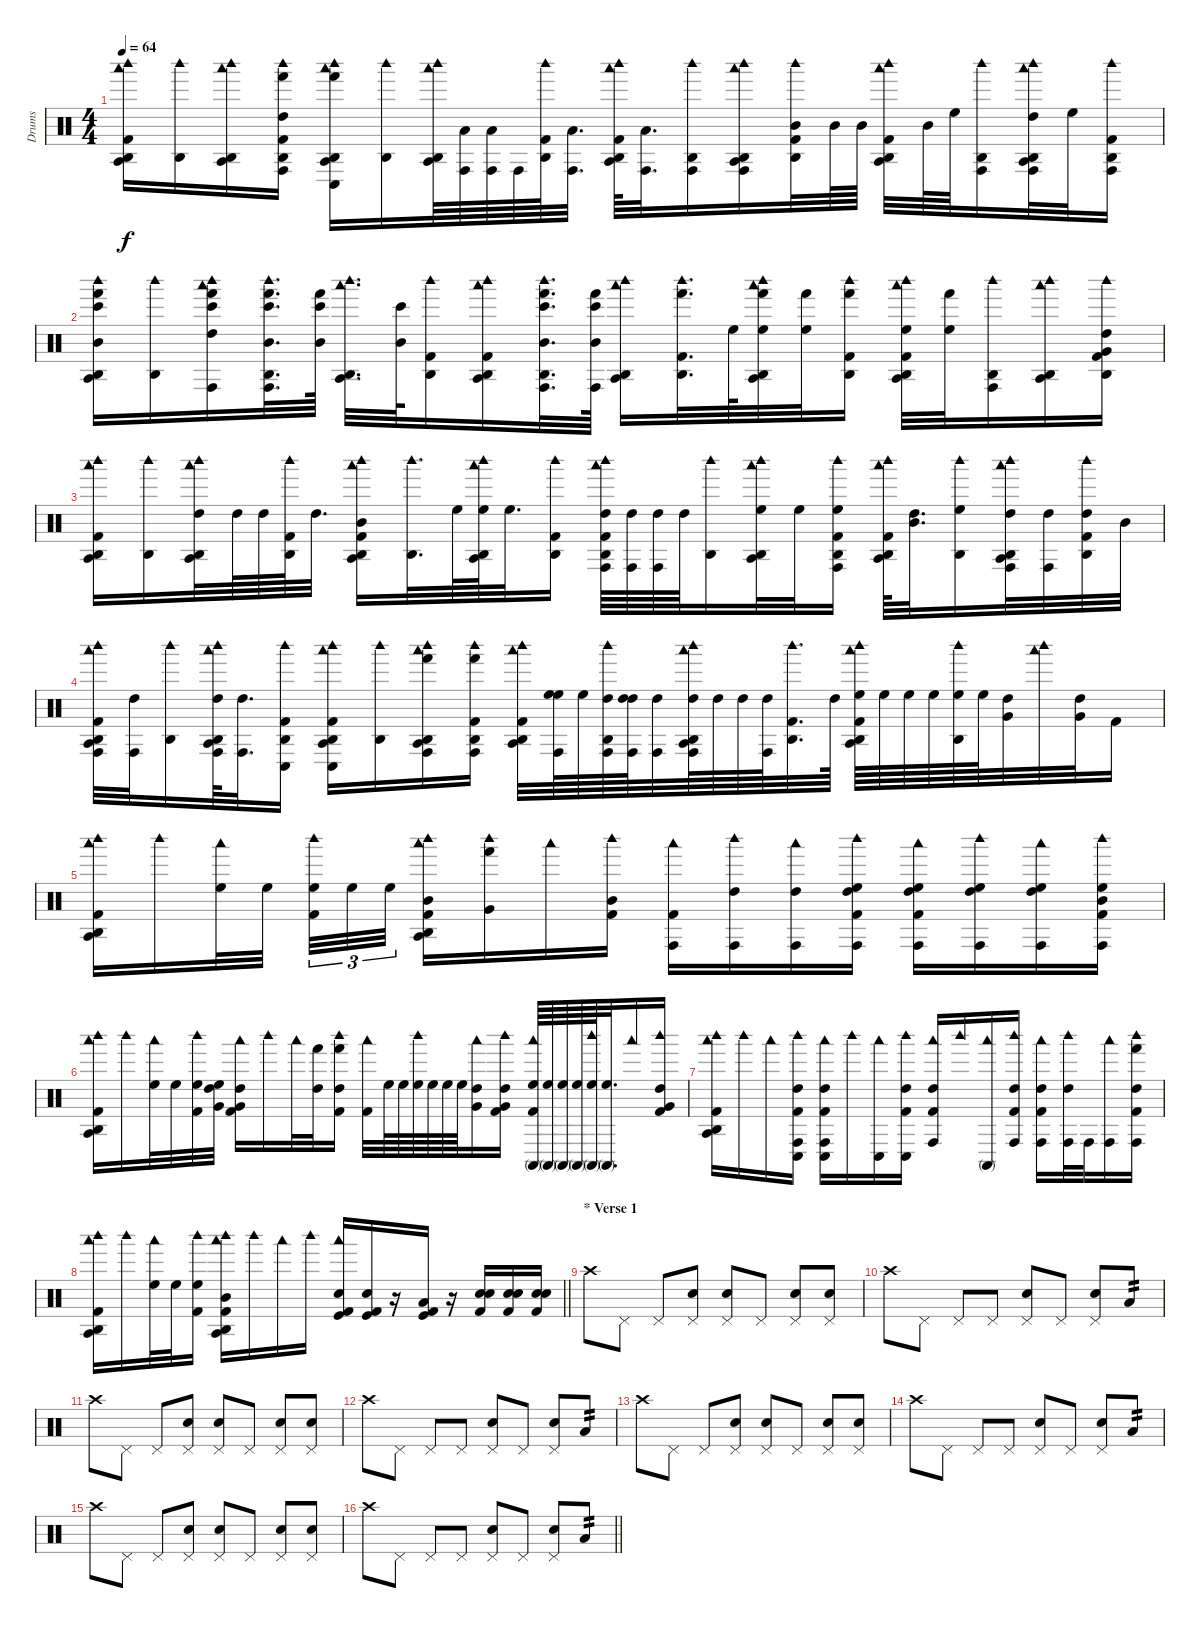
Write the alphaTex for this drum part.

\track ("Drums" "Drums") {instrument percussion}
\staff {score}
\articulation defaults
\ts (4 4)
\tempo 64
\clef neutral
\ks c
("Agogo tow (hit)" "Kick (hit) 2" "Agogo high (hit)" "Woodblock low (hit)" "Woodblock high (hit)").16{dy f} ("Woodblock high (hit)" "Agogo high (hit)").16 ("Woodblock high (hit)" "Woodblock low (hit)" "Agogo high (hit)" "Agogo tow (hit)").16 ("High Tom (hit)" "Conga high (hit)" "Hand (hit)" "Woodblock high (hit)" "Agogo high (hit)" "Kick (hit) 2").16 ("Conga low (hit)" "Hand (hit)" "Woodblock high (hit)" "Woodblock low (hit)" "Agogo high (hit)" "Agogo tow (hit)").16 ("Agogo high (hit)" "Woodblock high (hit)").16 ("Woodblock low (hit)" "Agogo high (hit)" "Agogo tow (hit)" "Woodblock high (hit)").64 ("Low Tom (hit)" "Conga high (hit)").64 ("Low Tom (hit)" "Conga high (hit)").64 "Conga high (hit)".64 ("Woodblock high (hit)" "Agogo high (hit)" "Kick (hit) 2").64 ("Low Tom (hit)" "Conga high (hit)").32{d} ("Agogo tow (hit)" "Agogo high (hit)" "Woodblock low (hit)" "Kick (hit) 2" "Woodblock high (hit)").64 ("Low Tom (hit)" "Conga high (hit)").32{d} ("Woodblock high (hit)" "Agogo high (hit)" "Conga high (hit)").16 ("Conga high (hit)" "Agogo tow (hit)" "Agogo high (hit)" "Woodblock low (hit)" "Woodblock high (hit)").16 ("Mid Tom (hit)" "Woodblock high (hit)" "Agogo high (hit)" "Kick (hit) 2").32 "Mid Tom (hit)".64 "Mid Tom (hit)".64 ("Agogo high (hit)" "Agogo tow (hit)" "Woodblock low (hit)" "Woodblock high (hit)" "Kick (hit) 2").32 "Mid Tom (hit)".64 "High Floor Tom (hit)".64 ("Conga high (hit)" "Agogo high (hit)" "Woodblock high (hit)").16 ("Woodblock low (hit)" "Agogo tow (hit)" "Agogo high (hit)" "Woodblock high (hit)" "Conga high (hit)" "High Tom (hit)").32 "High Floor Tom (hit)".32 ("Conga high (hit)" "Agogo high (hit)" "Woodblock high (hit)" "Kick (hit) 2").16 |
("Mid Tom (hit)" "Hand (hit)" "Bongo High (hit)" "Woodblock high (hit)" "Agogo high (hit)" "Agogo tow (hit)").16 ("Agogo high (hit)" "Woodblock high (hit)").16 ("Conga high (hit)" "High Tom (hit)" "Bongo High (hit)" "Hand (hit)" "Woodblock low (hit)" "Woodblock high (hit)").16 ("Bongo High (hit)" "Conga high (hit)" "Hand (hit)" "Mid Tom (hit)" "Agogo high (hit)" "Woodblock high (hit)").32{d} ("Hand (hit)" "Bongo High (hit)" "Mid Tom (hit)").64 ("Woodblock high (hit)" "Woodblock low (hit)" "Agogo tow (hit)" "Agogo high (hit)").32{d} ("Bongo High (hit)" "Mid Tom (hit)").64 ("Woodblock high (hit)" "Agogo high (hit)" "Kick (hit) 2").16 ("Woodblock high (hit)" "Agogo high (hit)" "Woodblock low (hit)" "Kick (hit) 2" "Agogo tow (hit)").16 ("Conga high (hit)" "Bongo High (hit)" "Woodblock high (hit)" "Hand (hit)" "Agogo high (hit)" "Mid Tom (hit)").32{d} ("Bongo High (hit)" "Hand (hit)" "Mid Tom (hit)" "Conga high (hit)").64 ("Agogo high (hit)" "Woodblock high (hit)" "Agogo tow (hit)" "Woodblock low (hit)").16 ("Woodblock high (hit)" "Agogo high (hit)" "Kick (hit) 2" "Hand (hit)").32{d} "High Floor Tom (hit)".64 ("Agogo high (hit)" "Woodblock high (hit)" "Agogo tow (hit)" "Woodblock low (hit)" "High Floor Tom (hit)" "Hand (hit)").32 ("Hand (hit)" "High Floor Tom (hit)").32 ("Hand (hit)" "Agogo high (hit)" "Woodblock high (hit)" "Kick (hit) 2").16 ("Woodblock high (hit)" "Agogo high (hit)" "Agogo tow (hit)" "Kick (hit) 2" "Woodblock low (hit)" "High Floor Tom (hit)").32 ("Hand (hit)" "High Floor Tom (hit)").32 ("Conga high (hit)" "Woodblock high (hit)" "Agogo high (hit)").16 ("Agogo high (hit)" "Woodblock high (hit)" "Agogo tow (hit)" "Woodblock low (hit)").16 ("Very Low Tom (hit)" "High Tom (hit)" "Woodblock high (hit)" "Agogo high (hit)" "Kick (hit) 2").16 |
("Agogo high (hit)" "Woodblock low (hit)" "Agogo tow (hit)" "Woodblock high (hit)" "Kick (hit) 2").16 ("Woodblock high (hit)" "Agogo high (hit)").16 ("Woodblock low (hit)" "Agogo tow (hit)" "Woodblock high (hit)" "Agogo high (hit)" "High Tom (hit)").32 "High Tom (hit)".64 "High Tom (hit)".64 ("Agogo high (hit)" "Woodblock high (hit)" "Kick (hit) 2").64 "High Tom (hit)".32{d} ("Mid Tom (hit)" "Woodblock high (hit)" "Agogo high (hit)" "Woodblock low (hit)" "Kick (hit) 2" "Agogo tow (hit)").16 ("Woodblock high (hit)" "Agogo high (hit)").32{d} "High Floor Tom (hit)".64 ("Woodblock low (hit)" "Woodblock high (hit)" "Agogo tow (hit)" "Agogo high (hit)" "High Floor Tom (hit)").64 "High Floor Tom (hit)".32{d} ("Woodblock high (hit)" "Agogo high (hit)" "Kick (hit) 2").16 ("Woodblock high (hit)" "High Tom (hit)" "Agogo high (hit)" "Woodblock low (hit)" "Conga high (hit)" "Kick (hit) 2").64 ("High Tom (hit)" "Conga high (hit)").64 ("High Tom (hit)" "Conga high (hit)").64 "High Tom (hit)".64 ("Agogo high (hit)" "Woodblock high (hit)").16 ("High Floor Tom (hit)" "Agogo high (hit)" "Woodblock low (hit)" "Woodblock high (hit)" "Agogo tow (hit)").32 "High Floor Tom (hit)".32 ("Conga high (hit)" "High Floor Tom (hit)" "Agogo high (hit)" "Woodblock high (hit)" "Kick (hit) 2").16 ("Agogo tow (hit)" "Woodblock high (hit)" "Woodblock low (hit)" "Kick (hit) 2" "Agogo high (hit)").64 ("Mid Tom (hit)" "High Tom (hit)").32{d} ("Woodblock high (hit)" "High Floor Tom (hit)" "Agogo high (hit)").16 ("Agogo tow (hit)" "Agogo high (hit)" "Woodblock high (hit)" "Woodblock low (hit)" "High Tom (hit)" "Conga high (hit)").32 ("High Tom (hit)" "Conga high (hit)").32 ("Woodblock high (hit)" "High Tom (hit)" "Agogo high (hit)" "Kick (hit) 2").32 "Mid Tom (hit)".32 |
("Agogo high (hit)" "Woodblock high (hit)" "Agogo tow (hit)" "Woodblock low (hit)" "Kick (hit) 2" "Conga high (hit)").32 ("High Tom (hit)" "Conga high (hit)").32 ("Woodblock high (hit)" "Agogo high (hit)").16 ("Conga high (hit)" "High Tom (hit)" "Agogo high (hit)" "Agogo tow (hit)" "Woodblock high (hit)" "Woodblock low (hit)").64 ("High Tom (hit)" "Conga high (hit)").32{d} ("Woodblock high (hit)" "Agogo high (hit)" "Kick (hit) 2" "Conga low (hit)").16 ("Agogo high (hit)" "Woodblock high (hit)" "Agogo tow (hit)" "Kick (hit) 2" "Woodblock low (hit)" "Conga low (hit)").16 ("Woodblock high (hit)" "Agogo high (hit)").16 ("Woodblock low (hit)" "Hand (hit)" "Agogo high (hit)" "Conga high (hit)" "Agogo tow (hit)" "Woodblock high (hit)").16 ("Conga high (hit)" "Woodblock high (hit)" "Agogo high (hit)" "Hand (hit)" "Kick (hit) 2").16 ("Woodblock high (hit)" "Agogo tow (hit)" "Woodblock low (hit)" "Agogo high (hit)" "Kick (hit) 2").32 ("Conga high (hit)" "High Floor Tom (hit)" "High Floor Tom (hit)").64 "High Floor Tom (hit)".64 ("Woodblock high (hit)" "High Tom (hit)" "Agogo high (hit)" "Conga high (hit)").64 ("High Tom (hit)" "Conga high (hit)" "High Tom (hit)").64 ("Conga high (hit)" "High Tom (hit)").32 ("Agogo tow (hit)" "High Tom (hit)" "Agogo high (hit)" "Woodblock high (hit)" "Conga high (hit)" "Woodblock low (hit)").64 "High Tom (hit)".64 "High Tom (hit)".64 ("High Tom (hit)" "Conga high (hit)").64 ("Woodblock high (hit)" "Agogo high (hit)" "Kick (hit) 2").32{d} "High Tom (hit)".64 ("Woodblock low (hit)" "Woodblock high (hit)" "Agogo high (hit)" "Agogo tow (hit)" "High Floor Tom (hit)" "Kick (hit) 2").64 "High Floor Tom (hit)".64 "High Floor Tom (hit)".64 "High Floor Tom (hit)".64 ("Agogo high (hit)" "Woodblock high (hit)" "High Floor Tom (hit)").64 "High Floor Tom (hit)".64 ("Very Low Tom (hit)" "High Tom (hit)").32 ("Woodblock high (hit)" "Woodblock low (hit)").32 ("Very Low Tom (hit)" "High Tom (hit)").32 "Kick (hit) 2".16 |
("Agogo high (hit)" "Woodblock low (hit)" "Agogo tow (hit)" "Woodblock high (hit)" "Kick (hit) 2").16 "Woodblock high (hit)".16 ("High Floor Tom (hit)" "Woodblock low (hit)").32 "High Floor Tom (hit)".32{beam splitsecondary} ("High Floor Tom (hit)" "Kick (hit) 2" "Woodblock high (hit)").32{tu (3 2)} "High Floor Tom (hit)".32{tu (3 2)} "High Floor Tom (hit)".32{tu (3 2)} ("Mid Tom (hit)" "Woodblock high (hit)" "Agogo high (hit)" "Woodblock low (hit)" "Kick (hit) 2" "Agogo tow (hit)").16 ("Very Low Tom (hit)" "Hand (hit)" "Woodblock high (hit)").16 "Woodblock low (hit)".16 ("Mid Tom (hit)" "Kick (hit) 2" "Woodblock high (hit)").16 ("Conga high (hit)" "Kick (hit) 2" "Woodblock low (hit)").16 ("High Tom (hit)" "Conga high (hit)" "Woodblock high (hit)").16 ("Conga high (hit)" "High Tom (hit)" "Woodblock low (hit)").16 ("High Floor Tom (hit)" "Kick (hit) 2" "Conga high (hit)" "High Tom (hit)" "Woodblock high (hit)").16 ("Kick (hit) 2" "High Floor Tom (hit)" "Conga high (hit)" "High Tom (hit)" "Woodblock low (hit)").16 ("High Tom (hit)" "Conga high (hit)" "High Floor Tom (hit)" "Woodblock high (hit)").16 ("Conga high (hit)" "High Tom (hit)" "High Floor Tom (hit)" "Woodblock low (hit)").16 ("Kick (hit) 2" "High Floor Tom (hit)" "Conga high (hit)" "Mid Tom (hit)" "Woodblock high (hit)").16 |
("Agogo high (hit)" "Woodblock low (hit)" "Agogo tow (hit)" "Woodblock high (hit)" "Kick (hit) 2").16 "Woodblock high (hit)".16 ("High Floor Tom (hit)" "Woodblock low (hit)").32 "High Floor Tom (hit)".32 ("High Floor Tom (hit)" "Kick (hit) 2" "Woodblock high (hit)").32 ("High Floor Tom (hit)" "Very Low Tom (hit)" "High Tom (hit)").32 ("Very Low Tom (hit)" "High Tom (hit)" "Kick (hit) 2" "Woodblock low (hit)").16 "Woodblock high (hit)".16 "Woodblock low (hit)".32 ("Hand (hit)" "High Tom (hit)").32 ("Kick (hit) 2" "High Tom (hit)" "Hand (hit)" "Woodblock high (hit)").16 ("Kick (hit) 2" "Woodblock low (hit)").32 "High Floor Tom (hit)".64 "High Floor Tom (hit)".64 ("High Floor Tom (hit)" "Woodblock high (hit)").64 "High Floor Tom (hit)".64 "High Floor Tom (hit)".64 "High Floor Tom (hit)".64 ("Very Low Tom (hit)" "High Tom (hit)" "Woodblock low (hit)").16 ("Kick (hit) 2" "High Tom (hit)" "Very Low Tom (hit)" "Woodblock high (hit)").16 ("Conga high (mute)" "High Floor Tom (hit)" "Kick (hit) 2" "Woodblock low (hit)").64 ("High Floor Tom (hit)" "Conga high (mute)").64 ("Conga high (mute)" "High Floor Tom (hit)").64 ("Conga high (mute)" "High Floor Tom (hit)").64 ("Conga high (mute)" "High Floor Tom (hit)" "Woodblock high (hit)").64 ("Conga high (mute)" "High Floor Tom (hit)").32{d} "Woodblock low (hit)".16 ("Kick (hit) 2" "Very Low Tom (hit)" "High Tom (hit)" "Woodblock high (hit)").16 |
("Agogo high (hit)" "Woodblock low (hit)" "Agogo tow (hit)" "Woodblock high (hit)" "Kick (hit) 2").16 "Woodblock high (hit)".16 "Woodblock low (hit)".16 ("Conga low (hit)" "Conga high (hit)" "High Tom (hit)" "Kick (hit) 2" "Woodblock high (hit)").16 ("Conga high (hit)" "High Tom (hit)" "Conga low (hit)" "Kick (hit) 2" "Woodblock low (hit)").16 "Woodblock high (hit)".16 ("Conga low (hit)" "Woodblock low (hit)").16 ("High Tom (hit)" "Conga low (hit)" "Kick (hit) 2" "Woodblock high (hit)").16 ("High Tom (hit)" "Conga high (hit)" "Kick (hit) 2" "Woodblock low (hit)").16 "Woodblock high (hit)".16 ("Conga high (mute)" "Woodblock low (hit)").16 ("Kick (hit) 2" "Conga high (hit)" "High Tom (hit)" "Woodblock high (hit)").16 ("Kick (hit) 2" "Conga high (hit)" "High Tom (hit)" "Woodblock low (hit)").16 ("Conga high (hit)" "High Tom (hit)" "Woodblock high (hit)").32 "Conga high (hit)".32 ("Conga high (hit)" "Woodblock low (hit)").16 ("Conga high (hit)" "Hand (hit)" "High Tom (hit)" "Kick (hit) 2" "Woodblock high (hit)").16 |
\barLineRight lightlight
("Agogo high (hit)" "Woodblock low (hit)" "Agogo tow (hit)" "Woodblock high (hit)" "Kick (hit) 2").16 "Woodblock high (hit)".16 ("High Floor Tom (hit)" "Woodblock low (hit)").32 "High Floor Tom (hit)".32 ("High Floor Tom (hit)" "Kick (hit) 2" "Woodblock high (hit)").16 ("Mid Tom (hit)" "Woodblock high (hit)" "Agogo high (hit)" "Woodblock low (hit)" "Kick (hit) 2" "Agogo tow (hit)").16 "Woodblock high (hit)".16 "Woodblock low (hit)".16 "Woodblock high (hit)".16 ("Snare (hit) 2" "Kick (hit) 2" "Kick (hit)" "Woodblock low (hit)").16 ("Snare (hit) 2" "Kick (hit) 2" "Kick (hit)").16 r.16 ("Kick (hit) 2" "Kick (hit)" "Low Floor Tom (hit)").16 r.16 ("Kick (hit) 2" "Snare (hit) 2" "Electric Snare (hit)").16 ("Electric Snare (hit)" "Kick (hit) 2" "Snare (hit) 2").16 ("Snare (hit) 2" "Electric Snare (hit)" "Kick (hit) 2").16 |
\section ("" "* Verse 1")
"Crash high (hit)".8 "Pedal Hi-Hat (hit)".8 "Pedal Hi-Hat (hit)".8 ("Pedal Hi-Hat (hit)" "Electric Snare (hit)").8 ("Pedal Hi-Hat (hit)" "Electric Snare (hit)").8 "Pedal Hi-Hat (hit)".8 ("Pedal Hi-Hat (hit)" "Electric Snare (hit)").8 ("Pedal Hi-Hat (hit)" "Electric Snare (hit)").8 |
"Crash high (hit)".8 "Pedal Hi-Hat (hit)".8 "Pedal Hi-Hat (hit)".8 "Pedal Hi-Hat (hit)".8 ("Pedal Hi-Hat (hit)" "Electric Snare (hit)").8 "Pedal Hi-Hat (hit)".8 ("Pedal Hi-Hat (hit)" "Electric Snare (hit)").8 "Low Tom (hit)".8{tp 2} |
"Crash high (hit)".8 "Pedal Hi-Hat (hit)".8 "Pedal Hi-Hat (hit)".8 ("Pedal Hi-Hat (hit)" "Electric Snare (hit)").8 ("Pedal Hi-Hat (hit)" "Electric Snare (hit)").8 "Pedal Hi-Hat (hit)".8 ("Pedal Hi-Hat (hit)" "Electric Snare (hit)").8 ("Pedal Hi-Hat (hit)" "Electric Snare (hit)").8 |
"Crash high (hit)".8 "Pedal Hi-Hat (hit)".8 "Pedal Hi-Hat (hit)".8 "Pedal Hi-Hat (hit)".8 ("Pedal Hi-Hat (hit)" "Electric Snare (hit)").8 "Pedal Hi-Hat (hit)".8 ("Pedal Hi-Hat (hit)" "Electric Snare (hit)").8 "Low Tom (hit)".8{tp 2} |
"Crash high (hit)".8 "Pedal Hi-Hat (hit)".8 "Pedal Hi-Hat (hit)".8 ("Pedal Hi-Hat (hit)" "Electric Snare (hit)").8 ("Pedal Hi-Hat (hit)" "Electric Snare (hit)").8 "Pedal Hi-Hat (hit)".8 ("Pedal Hi-Hat (hit)" "Electric Snare (hit)").8 ("Pedal Hi-Hat (hit)" "Electric Snare (hit)").8 |
"Crash high (hit)".8 "Pedal Hi-Hat (hit)".8 "Pedal Hi-Hat (hit)".8 "Pedal Hi-Hat (hit)".8 ("Pedal Hi-Hat (hit)" "Electric Snare (hit)").8 "Pedal Hi-Hat (hit)".8 ("Pedal Hi-Hat (hit)" "Electric Snare (hit)").8 "Low Tom (hit)".8{tp 2} |
"Crash high (hit)".8 "Pedal Hi-Hat (hit)".8 "Pedal Hi-Hat (hit)".8 ("Pedal Hi-Hat (hit)" "Electric Snare (hit)").8 ("Pedal Hi-Hat (hit)" "Electric Snare (hit)").8 "Pedal Hi-Hat (hit)".8 ("Pedal Hi-Hat (hit)" "Electric Snare (hit)").8 ("Pedal Hi-Hat (hit)" "Electric Snare (hit)").8 |
\barLineRight lightlight "Crash high (hit)".8 "Pedal Hi-Hat (hit)".8 "Pedal Hi-Hat (hit)".8 "Pedal Hi-Hat (hit)".8
("Pedal Hi-Hat (hit)" "Electric Snare (hit)").8 "Pedal Hi-Hat (hit)".8 ("Pedal Hi-Hat (hit)" "Electric Snare (hit)").8 "Low Tom (hit)".8{tp 2}
